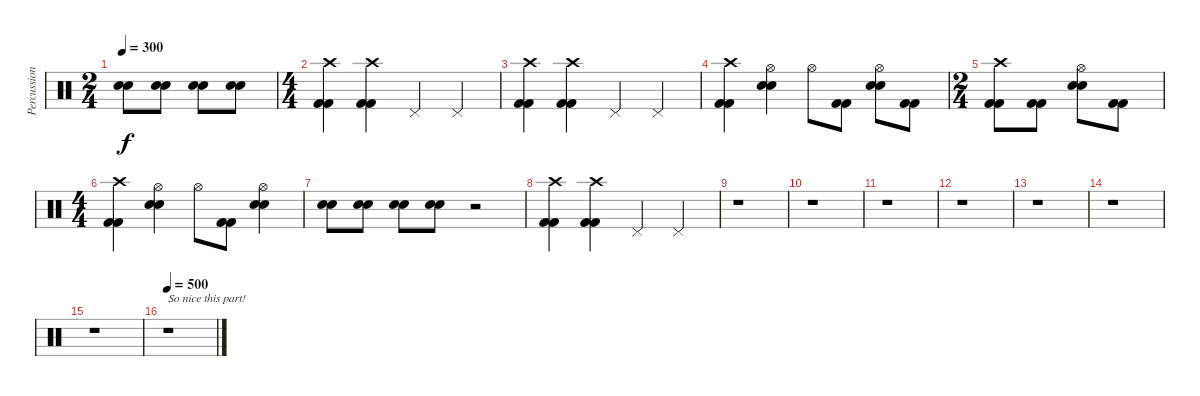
\track ("Percussion" "Percussion") {instrument percussion}
\staff {score}
\articulation defaults
\ts (2 4)
\tempo 300
\clef neutral
\ks c
("Electric Snare (hit)" "Electric Snare (hit)").8{dy f} ("Electric Snare (hit)" "Electric Snare (hit)").8 ("Electric Snare (hit)" "Electric Snare (hit)").8 ("Electric Snare (hit)" "Electric Snare (hit)").8 |
\ts (4 4)
("Crash high (hit)" "Kick (hit) 2" "Kick (hit) 2").4 ("Crash high (hit)" "Kick (hit) 2" "Kick (hit) 2").4 "Pedal Hi-Hat (hit)".4 "Pedal Hi-Hat (hit)".4 |
("Crash high (hit)" "Kick (hit) 2" "Kick (hit) 2").4 ("Crash high (hit)" "Kick (hit) 2" "Kick (hit) 2").4 "Pedal Hi-Hat (hit)".4 "Pedal Hi-Hat (hit)".4 |
("Crash high (hit)" "Kick (hit) 2" "Kick (hit) 2").4 ("Hi-Hat (open)" "Electric Snare (hit)" "Electric Snare (hit)").4 "Hi-Hat (open)".8 ("Kick (hit) 2" "Kick (hit) 2").8 ("Hi-Hat (open)" "Electric Snare (hit)" "Electric Snare (hit)").8 ("Kick (hit) 2" "Kick (hit) 2").8 |
\ts (2 4)
("Crash high (hit)" "Kick (hit) 2" "Kick (hit) 2").8 ("Kick (hit) 2" "Kick (hit) 2").8 ("Hi-Hat (open)" "Electric Snare (hit)" "Electric Snare (hit)").8 ("Kick (hit) 2" "Kick (hit) 2").8 |
\ts (4 4)
("Crash high (hit)" "Kick (hit) 2" "Kick (hit) 2").4 ("Hi-Hat (open)" "Electric Snare (hit)" "Electric Snare (hit)").4 "Hi-Hat (open)".8 ("Kick (hit) 2" "Kick (hit) 2").8 ("Hi-Hat (open)" "Electric Snare (hit)" "Electric Snare (hit)").4 |
("Electric Snare (hit)" "Electric Snare (hit)").8 ("Electric Snare (hit)" "Electric Snare (hit)").8 ("Electric Snare (hit)" "Electric Snare (hit)").8 ("Electric Snare (hit)" "Electric Snare (hit)").8 r.2 |
("Crash high (hit)" "Kick (hit) 2" "Kick (hit) 2").4 ("Crash high (hit)" "Kick (hit) 2" "Kick (hit) 2").4 "Pedal Hi-Hat (hit)".4 "Pedal Hi-Hat (hit)".4 |
r.1 |
r.1 |
r.1 |
r.1 |
r.1 |
r.1 |
r.1 |
\tempo 500
r.1{txt "So nice this part!"}
